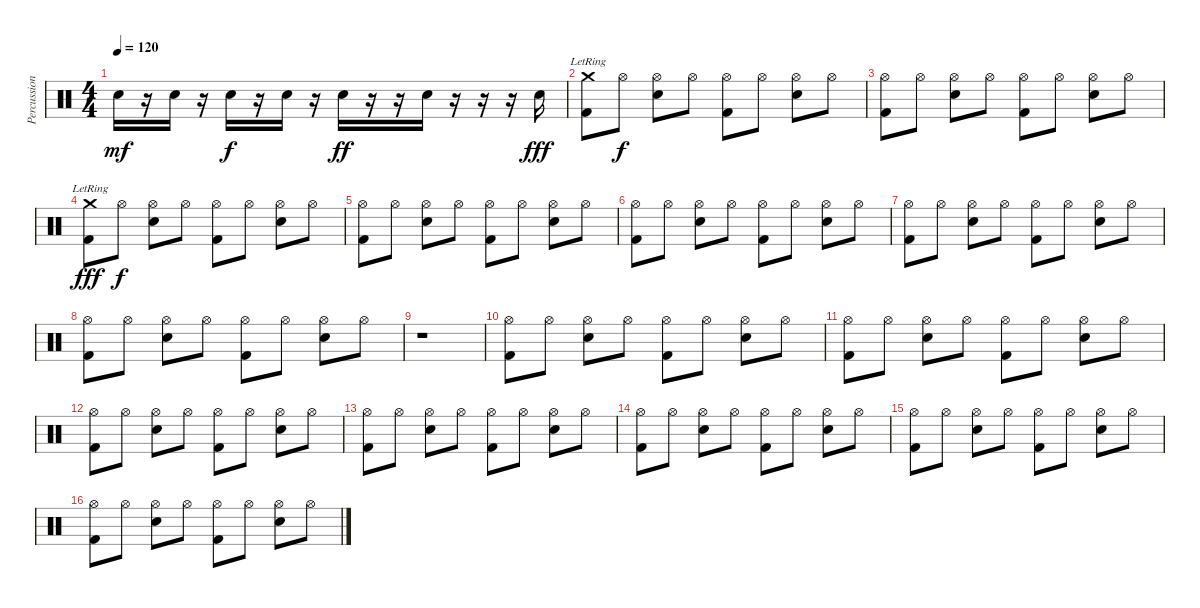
\track ("Percussion" "Percussion") {instrument percussion}
\staff {score}
\articulation defaults
\ts (4 4)
\tempo 120
\clef neutral
\ks c "Electric Snare (hit)".16{dy mf}
r.16 "Electric Snare (hit)".16 r.16 "Electric Snare (hit)".16{dy f} r.16 "Electric Snare (hit)".16 r.16 "Electric Snare (hit)".16{dy ff} r.16 r.16 "Electric Snare (hit)".16 r.16 r.16 r.16 "Electric Snare (hit)".16{dy fff} |
("Crash medium (hit)"{lr} "Kick (hit) 2").8 "Hi-Hat (open)".8{dy f} ("Hi-Hat (open)" "Electric Snare (hit)").8 "Hi-Hat (open)".8 ("Hi-Hat (open)" "Kick (hit) 2").8 "Hi-Hat (open)".8 ("Hi-Hat (open)" "Electric Snare (hit)").8 "Hi-Hat (open)".8 |
("Hi-Hat (open)" "Kick (hit) 2").8 "Hi-Hat (open)".8 ("Hi-Hat (open)" "Electric Snare (hit)").8 "Hi-Hat (open)".8 ("Hi-Hat (open)" "Kick (hit) 2").8 "Hi-Hat (open)".8 ("Hi-Hat (open)" "Electric Snare (hit)").8 "Hi-Hat (open)".8 |
("Crash medium (hit)"{lr} "Kick (hit) 2").8{dy fff} "Hi-Hat (open)".8{dy f} ("Hi-Hat (open)" "Electric Snare (hit)").8 "Hi-Hat (open)".8 ("Hi-Hat (open)" "Kick (hit) 2").8 "Hi-Hat (open)".8 ("Hi-Hat (open)" "Electric Snare (hit)").8 "Hi-Hat (open)".8 |
("Hi-Hat (open)" "Kick (hit) 2").8 "Hi-Hat (open)".8 ("Hi-Hat (open)" "Electric Snare (hit)").8 "Hi-Hat (open)".8 ("Hi-Hat (open)" "Kick (hit) 2").8 "Hi-Hat (open)".8 ("Hi-Hat (open)" "Electric Snare (hit)").8 "Hi-Hat (open)".8 |
("Hi-Hat (open)" "Kick (hit) 2").8 "Hi-Hat (open)".8 ("Hi-Hat (open)" "Electric Snare (hit)").8 "Hi-Hat (open)".8 ("Hi-Hat (open)" "Kick (hit) 2").8 "Hi-Hat (open)".8 ("Hi-Hat (open)" "Electric Snare (hit)").8 "Hi-Hat (open)".8 |
("Hi-Hat (open)" "Kick (hit) 2").8 "Hi-Hat (open)".8 ("Hi-Hat (open)" "Electric Snare (hit)").8 "Hi-Hat (open)".8 ("Hi-Hat (open)" "Kick (hit) 2").8 "Hi-Hat (open)".8 ("Hi-Hat (open)" "Electric Snare (hit)").8 "Hi-Hat (open)".8 |
("Hi-Hat (open)" "Kick (hit) 2").8 "Hi-Hat (open)".8 ("Hi-Hat (open)" "Electric Snare (hit)").8 "Hi-Hat (open)".8 ("Hi-Hat (open)" "Kick (hit) 2").8 "Hi-Hat (open)".8 ("Hi-Hat (open)" "Electric Snare (hit)").8 "Hi-Hat (open)".8 |
r.1 |
("Hi-Hat (open)" "Kick (hit) 2").8 "Hi-Hat (open)".8 ("Hi-Hat (open)" "Electric Snare (hit)").8 "Hi-Hat (open)".8 ("Hi-Hat (open)" "Kick (hit) 2").8 "Hi-Hat (open)".8 ("Hi-Hat (open)" "Electric Snare (hit)").8 "Hi-Hat (open)".8 |
("Hi-Hat (open)" "Kick (hit) 2").8 "Hi-Hat (open)".8 ("Hi-Hat (open)" "Electric Snare (hit)").8 "Hi-Hat (open)".8 ("Hi-Hat (open)" "Kick (hit) 2").8 "Hi-Hat (open)".8 ("Hi-Hat (open)" "Electric Snare (hit)").8 "Hi-Hat (open)".8 |
("Hi-Hat (open)" "Kick (hit) 2").8 "Hi-Hat (open)".8 ("Hi-Hat (open)" "Electric Snare (hit)").8 "Hi-Hat (open)".8 ("Hi-Hat (open)" "Kick (hit) 2").8 "Hi-Hat (open)".8 ("Hi-Hat (open)" "Electric Snare (hit)").8 "Hi-Hat (open)".8 |
("Hi-Hat (open)" "Kick (hit) 2").8 "Hi-Hat (open)".8 ("Hi-Hat (open)" "Electric Snare (hit)").8 "Hi-Hat (open)".8 ("Hi-Hat (open)" "Kick (hit) 2").8 "Hi-Hat (open)".8 ("Hi-Hat (open)" "Electric Snare (hit)").8 "Hi-Hat (open)".8 |
("Hi-Hat (open)" "Kick (hit) 2").8 "Hi-Hat (open)".8 ("Hi-Hat (open)" "Electric Snare (hit)").8 "Hi-Hat (open)".8 ("Hi-Hat (open)" "Kick (hit) 2").8 "Hi-Hat (open)".8 ("Hi-Hat (open)" "Electric Snare (hit)").8 "Hi-Hat (open)".8 |
("Hi-Hat (open)" "Kick (hit) 2").8 "Hi-Hat (open)".8 ("Hi-Hat (open)" "Electric Snare (hit)").8 "Hi-Hat (open)".8 ("Hi-Hat (open)" "Kick (hit) 2").8 "Hi-Hat (open)".8 ("Hi-Hat (open)" "Electric Snare (hit)").8 "Hi-Hat (open)".8 |
("Hi-Hat (open)" "Kick (hit) 2").8 "Hi-Hat (open)".8 ("Hi-Hat (open)" "Electric Snare (hit)").8 "Hi-Hat (open)".8 ("Hi-Hat (open)" "Kick (hit) 2").8 "Hi-Hat (open)".8 ("Hi-Hat (open)" "Electric Snare (hit)").8 "Hi-Hat (open)".8
